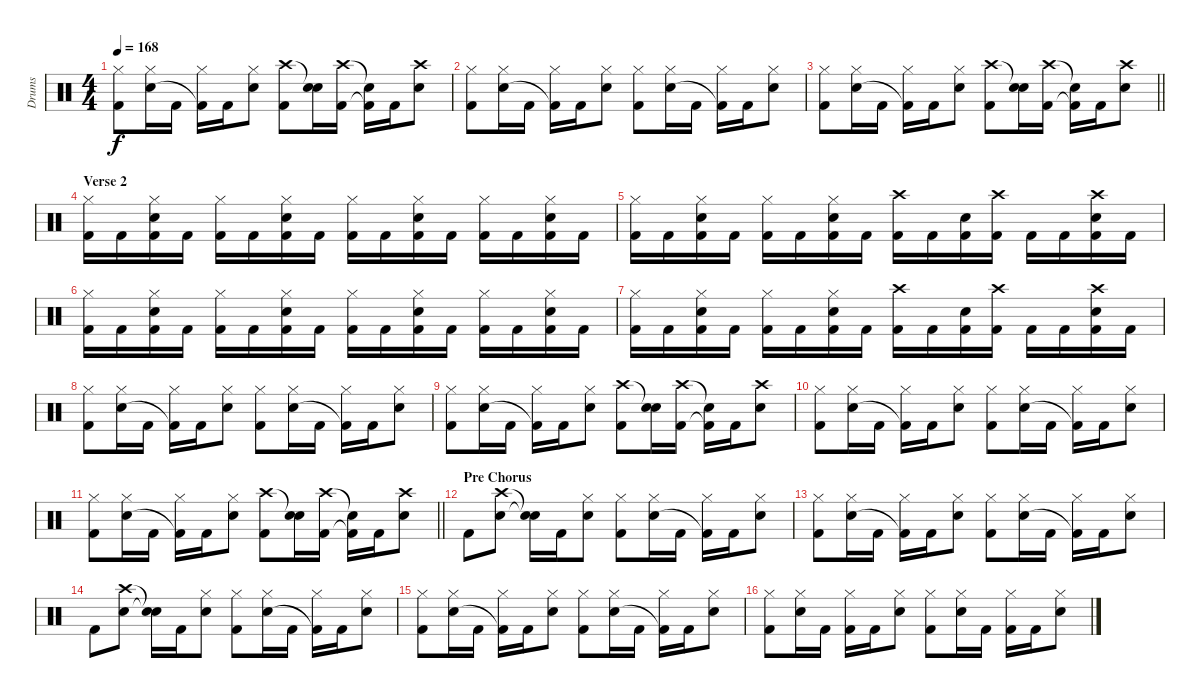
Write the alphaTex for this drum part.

\track ("Drums" "Drums") {instrument percussion}
\staff {score}
\articulation defaults
\ts (4 4)
\tempo 168
\clef neutral
\ks c
("Hi-Hat (closed)" "Kick (hit) 2").8{dy f} ("Hi-Hat (closed)" "Electric Snare (hit)").16 "Kick (hit) 2".16 ("Hi-Hat (closed)" "Kick (hit) 2"{t}).16 "Kick (hit) 2".16 ("Hi-Hat (closed)" "Electric Snare (hit)").8 ("Crash high (hit)" "Kick (hit) 2").8 ("Snare (hit)"{t} "Electric Snare (hit)").16 ("Crash high (hit)" "Kick (hit) 2").16 ("Snare (hit)"{t} "Kick (hit) 2"{t}).16 "Kick (hit) 2".16 ("Crash high (hit)" "Electric Snare (hit)").8 |
("Hi-Hat (closed)" "Kick (hit) 2").8 ("Hi-Hat (closed)" "Electric Snare (hit)").16 "Kick (hit) 2".16 ("Hi-Hat (closed)" "Kick (hit) 2"{t}).16 "Kick (hit) 2".16 ("Hi-Hat (closed)" "Electric Snare (hit)").8 ("Hi-Hat (closed)" "Kick (hit) 2").8 ("Hi-Hat (closed)" "Electric Snare (hit)").16 "Kick (hit) 2".16 ("Hi-Hat (closed)" "Kick (hit) 2"{t}).16 "Kick (hit) 2".16 ("Hi-Hat (closed)" "Electric Snare (hit)").8 |
\barLineRight lightlight
("Hi-Hat (closed)" "Kick (hit) 2").8 ("Hi-Hat (closed)" "Electric Snare (hit)").16 "Kick (hit) 2".16 ("Hi-Hat (closed)" "Kick (hit) 2"{t}).16 "Kick (hit) 2".16 ("Hi-Hat (closed)" "Electric Snare (hit)").8 ("Crash high (hit)" "Kick (hit) 2").8 ("Snare (hit)"{t} "Electric Snare (hit)").16 ("Crash high (hit)" "Kick (hit) 2").16 ("Snare (hit)"{t} "Kick (hit) 2"{t}).16 "Kick (hit) 2".16 ("Crash high (hit)" "Electric Snare (hit)").8 |
\section ("" "Verse 2")
("Hi-Hat (closed)" "Kick (hit) 2").16 "Kick (hit) 2".16 ("Hi-Hat (closed)" "Electric Snare (hit)" "Kick (hit) 2").16 "Kick (hit) 2".16 ("Hi-Hat (closed)" "Kick (hit) 2").16 "Kick (hit) 2".16 ("Hi-Hat (closed)" "Electric Snare (hit)" "Kick (hit) 2").16 "Kick (hit) 2".16 ("Hi-Hat (closed)" "Kick (hit) 2").16 "Kick (hit) 2".16 ("Hi-Hat (closed)" "Electric Snare (hit)" "Kick (hit) 2").16 "Kick (hit) 2".16 ("Hi-Hat (closed)" "Kick (hit) 2").16 "Kick (hit) 2".16 ("Hi-Hat (closed)" "Electric Snare (hit)" "Kick (hit) 2").16 "Kick (hit) 2".16 |
("Hi-Hat (closed)" "Kick (hit) 2").16 "Kick (hit) 2".16 ("Hi-Hat (closed)" "Electric Snare (hit)" "Kick (hit) 2").16 "Kick (hit) 2".16 ("Hi-Hat (closed)" "Kick (hit) 2").16 "Kick (hit) 2".16 ("Hi-Hat (closed)" "Electric Snare (hit)" "Kick (hit) 2").16 "Kick (hit) 2".16 ("Crash high (hit)" "Kick (hit) 2").16 "Kick (hit) 2".16 ("Electric Snare (hit)" "Kick (hit) 2").16 ("Crash high (hit)" "Kick (hit) 2").16 "Kick (hit) 2".16 "Kick (hit) 2".16 ("Crash high (hit)" "Electric Snare (hit)" "Kick (hit) 2").16 "Kick (hit) 2".16 |
("Hi-Hat (closed)" "Kick (hit) 2").16 "Kick (hit) 2".16 ("Hi-Hat (closed)" "Electric Snare (hit)" "Kick (hit) 2").16 "Kick (hit) 2".16 ("Hi-Hat (closed)" "Kick (hit) 2").16 "Kick (hit) 2".16 ("Hi-Hat (closed)" "Electric Snare (hit)" "Kick (hit) 2").16 "Kick (hit) 2".16 ("Hi-Hat (closed)" "Kick (hit) 2").16 "Kick (hit) 2".16 ("Hi-Hat (closed)" "Electric Snare (hit)" "Kick (hit) 2").16 "Kick (hit) 2".16 ("Hi-Hat (closed)" "Kick (hit) 2").16 "Kick (hit) 2".16 ("Hi-Hat (closed)" "Electric Snare (hit)" "Kick (hit) 2").16 "Kick (hit) 2".16 |
("Hi-Hat (closed)" "Kick (hit) 2").16 "Kick (hit) 2".16 ("Hi-Hat (closed)" "Electric Snare (hit)" "Kick (hit) 2").16 "Kick (hit) 2".16 ("Hi-Hat (closed)" "Kick (hit) 2").16 "Kick (hit) 2".16 ("Hi-Hat (closed)" "Electric Snare (hit)" "Kick (hit) 2").16 "Kick (hit) 2".16 ("Crash high (hit)" "Kick (hit) 2").16 "Kick (hit) 2".16 ("Electric Snare (hit)" "Kick (hit) 2").16 ("Crash high (hit)" "Kick (hit) 2").16 "Kick (hit) 2".16 "Kick (hit) 2".16 ("Crash high (hit)" "Electric Snare (hit)" "Kick (hit) 2").16 "Kick (hit) 2".16 |
("Hi-Hat (closed)" "Kick (hit) 2").8 ("Hi-Hat (closed)" "Electric Snare (hit)").16 "Kick (hit) 2".16 ("Hi-Hat (closed)" "Kick (hit) 2"{t}).16 "Kick (hit) 2".16 ("Hi-Hat (closed)" "Electric Snare (hit)").8 ("Hi-Hat (closed)" "Kick (hit) 2").8 ("Hi-Hat (closed)" "Electric Snare (hit)").16 "Kick (hit) 2".16 ("Hi-Hat (closed)" "Kick (hit) 2"{t}).16 "Kick (hit) 2".16 ("Hi-Hat (closed)" "Electric Snare (hit)").8 |
("Hi-Hat (closed)" "Kick (hit) 2").8 ("Hi-Hat (closed)" "Electric Snare (hit)").16 "Kick (hit) 2".16 ("Hi-Hat (closed)" "Kick (hit) 2"{t}).16 "Kick (hit) 2".16 ("Hi-Hat (closed)" "Electric Snare (hit)").8 ("Crash high (hit)" "Kick (hit) 2").8 ("Snare (hit)"{t} "Electric Snare (hit)").16 ("Crash high (hit)" "Kick (hit) 2").16 ("Snare (hit)"{t} "Kick (hit) 2"{t}).16 "Kick (hit) 2".16 ("Crash high (hit)" "Electric Snare (hit)").8 |
("Hi-Hat (closed)" "Kick (hit) 2").8 ("Hi-Hat (closed)" "Electric Snare (hit)").16 "Kick (hit) 2".16 ("Hi-Hat (closed)" "Kick (hit) 2"{t}).16 "Kick (hit) 2".16 ("Hi-Hat (closed)" "Electric Snare (hit)").8 ("Hi-Hat (closed)" "Kick (hit) 2").8 ("Hi-Hat (closed)" "Electric Snare (hit)").16 "Kick (hit) 2".16 ("Hi-Hat (closed)" "Kick (hit) 2"{t}).16 "Kick (hit) 2".16 ("Hi-Hat (closed)" "Electric Snare (hit)").8 |
\barLineRight lightlight
("Hi-Hat (closed)" "Kick (hit) 2").8 ("Hi-Hat (closed)" "Electric Snare (hit)").16 "Kick (hit) 2".16 ("Hi-Hat (closed)" "Kick (hit) 2"{t}).16 "Kick (hit) 2".16 ("Hi-Hat (closed)" "Electric Snare (hit)").8 ("Crash high (hit)" "Kick (hit) 2").8 ("Snare (hit)"{t} "Electric Snare (hit)").16 ("Crash high (hit)" "Kick (hit) 2").16 ("Snare (hit)"{t} "Kick (hit) 2"{t}).16 "Kick (hit) 2".16 ("Crash high (hit)" "Electric Snare (hit)").8 |
\section ("" "Pre Chorus")
"Kick (hit) 2".8 ("Crash high (hit)" "Electric Snare (hit)").8 ("Snare (hit)"{t} "Snare (hit)"{t}).16 "Kick (hit) 2".16 ("Hi-Hat (closed)" "Electric Snare (hit)").8 ("Hi-Hat (closed)" "Kick (hit) 2").8 ("Hi-Hat (closed)" "Electric Snare (hit)").16 "Kick (hit) 2".16 ("Hi-Hat (closed)" "Kick (hit) 2"{t}).16 "Kick (hit) 2".16 ("Hi-Hat (closed)" "Electric Snare (hit)").8 |
("Hi-Hat (closed)" "Kick (hit) 2").8 ("Hi-Hat (closed)" "Electric Snare (hit)").16 "Kick (hit) 2".16 ("Hi-Hat (closed)" "Kick (hit) 2"{t}).16 "Kick (hit) 2".16 ("Hi-Hat (closed)" "Electric Snare (hit)").8 ("Hi-Hat (closed)" "Kick (hit) 2").8 ("Hi-Hat (closed)" "Electric Snare (hit)").16 "Kick (hit) 2".16 ("Hi-Hat (closed)" "Kick (hit) 2"{t}).16 "Kick (hit) 2".16 ("Hi-Hat (closed)" "Electric Snare (hit)").8 |
"Kick (hit) 2".8 ("Crash high (hit)" "Electric Snare (hit)").8 ("Snare (hit)"{t} "Snare (hit)"{t}).16 "Kick (hit) 2".16 ("Hi-Hat (closed)" "Electric Snare (hit)").8 ("Hi-Hat (closed)" "Kick (hit) 2").8 ("Hi-Hat (closed)" "Electric Snare (hit)").16 "Kick (hit) 2".16 ("Hi-Hat (closed)" "Kick (hit) 2"{t}).16 "Kick (hit) 2".16 ("Hi-Hat (closed)" "Electric Snare (hit)").8 |
("Hi-Hat (closed)" "Kick (hit) 2").8 ("Hi-Hat (closed)" "Electric Snare (hit)").16 "Kick (hit) 2".16 ("Hi-Hat (closed)" "Kick (hit) 2"{t}).16 "Kick (hit) 2".16 ("Hi-Hat (closed)" "Electric Snare (hit)").8 ("Hi-Hat (closed)" "Kick (hit) 2").8 ("Hi-Hat (closed)" "Electric Snare (hit)").16 "Kick (hit) 2".16 ("Hi-Hat (closed)" "Kick (hit) 2"{t}).16 "Kick (hit) 2".16 ("Hi-Hat (closed)" "Electric Snare (hit)").8 |
("Hi-Hat (closed)" "Kick (hit) 2").8 ("Hi-Hat (closed)" "Electric Snare (hit)").16 "Kick (hit) 2".16 ("Hi-Hat (closed)" "Kick (hit) 2").16 "Kick (hit) 2".16 ("Hi-Hat (closed)" "Electric Snare (hit)").8 ("Hi-Hat (closed)" "Kick (hit) 2").8 ("Hi-Hat (closed)" "Electric Snare (hit)").16 "Kick (hit) 2".16 ("Hi-Hat (closed)" "Kick (hit) 2").16 "Kick (hit) 2".16 ("Hi-Hat (closed)" "Electric Snare (hit)").8
